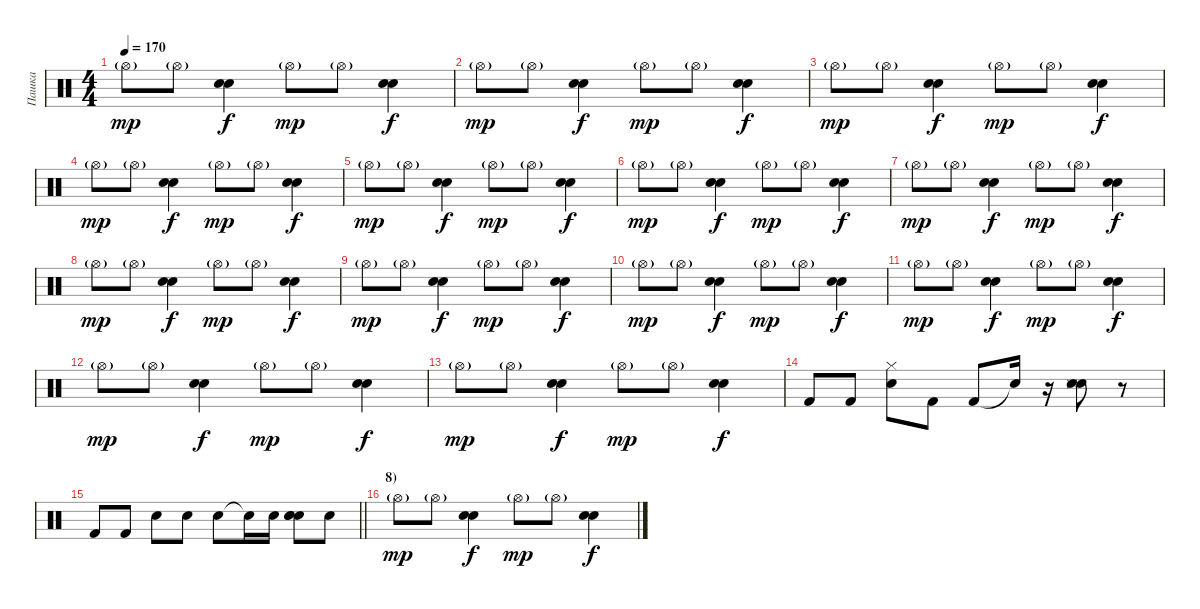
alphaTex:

\track ("Пашка" "Пашка") {instrument percussion}
\staff {score}
\articulation defaults
\ts (4 4)
\tempo 170
\clef neutral
\ks c "Hi-Hat (open)"{g}.8{dy mp} "Hi-Hat (open)"{g}.8
("Electric Snare (hit)" "Snare (hit) 2").4{dy f} "Hi-Hat (open)"{g}.8{dy mp} "Hi-Hat (open)"{g}.8 ("Electric Snare (hit)" "Snare (hit) 2").4{dy f} |
"Hi-Hat (open)"{g}.8{dy mp} "Hi-Hat (open)"{g}.8 ("Electric Snare (hit)" "Snare (hit) 2").4{dy f} "Hi-Hat (open)"{g}.8{dy mp} "Hi-Hat (open)"{g}.8 ("Electric Snare (hit)" "Snare (hit) 2").4{dy f} |
"Hi-Hat (open)"{g}.8{dy mp} "Hi-Hat (open)"{g}.8 ("Electric Snare (hit)" "Snare (hit) 2").4{dy f} "Hi-Hat (open)"{g}.8{dy mp} "Hi-Hat (open)"{g}.8 ("Electric Snare (hit)" "Snare (hit) 2").4{dy f} |
"Hi-Hat (open)"{g}.8{dy mp} "Hi-Hat (open)"{g}.8 ("Electric Snare (hit)" "Snare (hit) 2").4{dy f} "Hi-Hat (open)"{g}.8{dy mp} "Hi-Hat (open)"{g}.8 ("Electric Snare (hit)" "Snare (hit) 2").4{dy f} |
"Hi-Hat (open)"{g}.8{dy mp} "Hi-Hat (open)"{g}.8 ("Electric Snare (hit)" "Snare (hit) 2").4{dy f} "Hi-Hat (open)"{g}.8{dy mp} "Hi-Hat (open)"{g}.8 ("Electric Snare (hit)" "Snare (hit) 2").4{dy f} |
"Hi-Hat (open)"{g}.8{dy mp} "Hi-Hat (open)"{g}.8 ("Electric Snare (hit)" "Snare (hit) 2").4{dy f} "Hi-Hat (open)"{g}.8{dy mp} "Hi-Hat (open)"{g}.8 ("Electric Snare (hit)" "Snare (hit) 2").4{dy f} |
"Hi-Hat (open)"{g}.8{dy mp} "Hi-Hat (open)"{g}.8 ("Electric Snare (hit)" "Snare (hit) 2").4{dy f} "Hi-Hat (open)"{g}.8{dy mp} "Hi-Hat (open)"{g}.8 ("Electric Snare (hit)" "Snare (hit) 2").4{dy f} |
"Hi-Hat (open)"{g}.8{dy mp} "Hi-Hat (open)"{g}.8 ("Electric Snare (hit)" "Snare (hit) 2").4{dy f} "Hi-Hat (open)"{g}.8{dy mp} "Hi-Hat (open)"{g}.8 ("Electric Snare (hit)" "Snare (hit) 2").4{dy f} |
"Hi-Hat (open)"{g}.8{dy mp} "Hi-Hat (open)"{g}.8 ("Electric Snare (hit)" "Snare (hit) 2").4{dy f} "Hi-Hat (open)"{g}.8{dy mp} "Hi-Hat (open)"{g}.8 ("Electric Snare (hit)" "Snare (hit) 2").4{dy f} |
"Hi-Hat (open)"{g}.8{dy mp} "Hi-Hat (open)"{g}.8 ("Electric Snare (hit)" "Snare (hit) 2").4{dy f} "Hi-Hat (open)"{g}.8{dy mp} "Hi-Hat (open)"{g}.8 ("Electric Snare (hit)" "Snare (hit) 2").4{dy f} |
"Hi-Hat (open)"{g}.8{dy mp} "Hi-Hat (open)"{g}.8 ("Electric Snare (hit)" "Snare (hit) 2").4{dy f} "Hi-Hat (open)"{g}.8{dy mp} "Hi-Hat (open)"{g}.8 ("Electric Snare (hit)" "Snare (hit) 2").4{dy f} |
"Hi-Hat (open)"{g}.8{dy mp} "Hi-Hat (open)"{g}.8 ("Electric Snare (hit)" "Snare (hit) 2").4{dy f} "Hi-Hat (open)"{g}.8{dy mp} "Hi-Hat (open)"{g}.8 ("Electric Snare (hit)" "Snare (hit) 2").4{dy f} |
"Hi-Hat (open)"{g}.8{dy mp} "Hi-Hat (open)"{g}.8 ("Electric Snare (hit)" "Snare (hit) 2").4{dy f} "Hi-Hat (open)"{g}.8{dy mp} "Hi-Hat (open)"{g}.8 ("Electric Snare (hit)" "Snare (hit) 2").4{dy f} |
"Kick (hit) 2".8 "Kick (hit) 2".8 ("Hi-Hat (closed)" "Snare (hit) 2").8 "Kick (hit) 2".8 "Kick (hit) 2".8 "Snare (hit)"{t}.16 r.16 ("Metronome (bell)" "Snare (side stick) 3" "Electric Snare (hit)").8 r.8 |
\barLineRight lightlight "Kick (hit) 2".8 "Kick (hit) 2".8 "Electric Snare (hit)".8 "Electric Snare (hit)".8 "Electric Snare (hit)".8 "Snare (hit)"{t}.16 "Electric Snare (hit)".16
("Electric Snare (hit)" "Snare (hit) 2" "Electric Snare (hit)").8 "Electric Snare (hit)".8 |
\section ("" "8)")
"Hi-Hat (open)"{g}.8{dy mp} "Hi-Hat (open)"{g}.8 ("Electric Snare (hit)" "Snare (hit) 2").4{dy f} "Hi-Hat (open)"{g}.8{dy mp} "Hi-Hat (open)"{g}.8 ("Electric Snare (hit)" "Snare (hit) 2").4{dy f}
